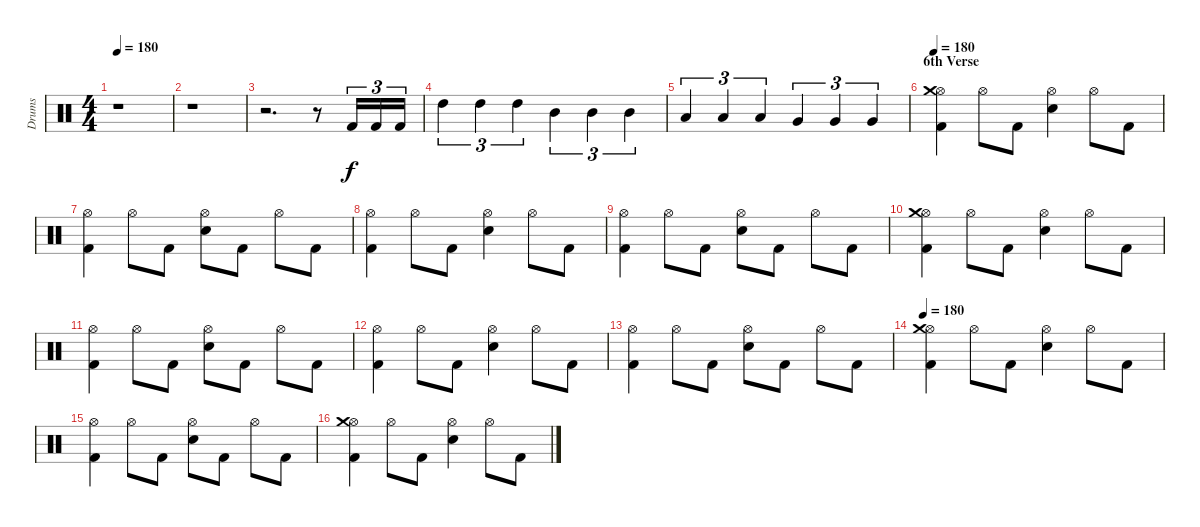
\track ("Drums" "Drums") {instrument percussion}
\staff {score}
\articulation defaults
\ts (4 4)
\tempo 180
\clef neutral
\ks c
r.1{dy f} |
r.1 |
r.2{d} r.8 "Kick (hit) 2".16{tu (3 2)} "Kick (hit) 2".16{tu (3 2)} "Kick (hit) 2".16{tu (3 2)} |
"High Tom (hit)".4{tu (3 2)} "High Tom (hit)".4{tu (3 2)} "High Tom (hit)".4{tu (3 2)} "Mid Tom (hit)".4{tu (3 2)} "Mid Tom (hit)".4{tu (3 2)} "Mid Tom (hit)".4{tu (3 2)} |
"Low Tom (hit)".4{tu (3 2)} "Low Tom (hit)".4{tu (3 2)} "Low Tom (hit)".4{tu (3 2)} "Very Low Tom (hit)".4{tu (3 2)} "Very Low Tom (hit)".4{tu (3 2)} "Very Low Tom (hit)".4{tu (3 2)} |
\section ("" "6th Verse")
\tempo 180
("Kick (hit) 2" "Hi-Hat (open)" "Crash medium (hit)").4 "Hi-Hat (open)".8 "Kick (hit) 2".8 ("Electric Snare (hit)" "Hi-Hat (open)").4 "Hi-Hat (open)".8 "Kick (hit) 2".8 |
("Kick (hit) 2" "Hi-Hat (open)").4 "Hi-Hat (open)".8 "Kick (hit) 2".8 ("Electric Snare (hit)" "Hi-Hat (open)").8 "Kick (hit) 2".8 "Hi-Hat (open)".8 "Kick (hit) 2".8 |
("Kick (hit) 2" "Hi-Hat (open)").4 "Hi-Hat (open)".8 "Kick (hit) 2".8 ("Electric Snare (hit)" "Hi-Hat (open)").4 "Hi-Hat (open)".8 "Kick (hit) 2".8 |
("Kick (hit) 2" "Hi-Hat (open)").4 "Hi-Hat (open)".8 "Kick (hit) 2".8 ("Electric Snare (hit)" "Hi-Hat (open)").8 "Kick (hit) 2".8 "Hi-Hat (open)".8 "Kick (hit) 2".8 |
("Kick (hit) 2" "Hi-Hat (open)" "Crash medium (hit)").4 "Hi-Hat (open)".8 "Kick (hit) 2".8 ("Electric Snare (hit)" "Hi-Hat (open)").4 "Hi-Hat (open)".8 "Kick (hit) 2".8 |
("Kick (hit) 2" "Hi-Hat (open)").4 "Hi-Hat (open)".8 "Kick (hit) 2".8 ("Electric Snare (hit)" "Hi-Hat (open)").8 "Kick (hit) 2".8 "Hi-Hat (open)".8 "Kick (hit) 2".8 |
("Kick (hit) 2" "Hi-Hat (open)").4 "Hi-Hat (open)".8 "Kick (hit) 2".8 ("Electric Snare (hit)" "Hi-Hat (open)").4 "Hi-Hat (open)".8 "Kick (hit) 2".8 |
("Kick (hit) 2" "Hi-Hat (open)").4 "Hi-Hat (open)".8 "Kick (hit) 2".8 ("Electric Snare (hit)" "Hi-Hat (open)").8 "Kick (hit) 2".8 "Hi-Hat (open)".8 "Kick (hit) 2".8 |
\tempo 180
("Kick (hit) 2" "Hi-Hat (open)" "Crash medium (hit)").4 "Hi-Hat (open)".8 "Kick (hit) 2".8 ("Electric Snare (hit)" "Hi-Hat (open)").4 "Hi-Hat (open)".8 "Kick (hit) 2".8 |
("Kick (hit) 2" "Hi-Hat (open)").4 "Hi-Hat (open)".8 "Kick (hit) 2".8 ("Electric Snare (hit)" "Hi-Hat (open)").8 "Kick (hit) 2".8 "Hi-Hat (open)".8 "Kick (hit) 2".8 |
("Kick (hit) 2" "Hi-Hat (open)" "Crash medium (hit)").4 "Hi-Hat (open)".8 "Kick (hit) 2".8 ("Electric Snare (hit)" "Hi-Hat (open)").4 "Hi-Hat (open)".8 "Kick (hit) 2".8
